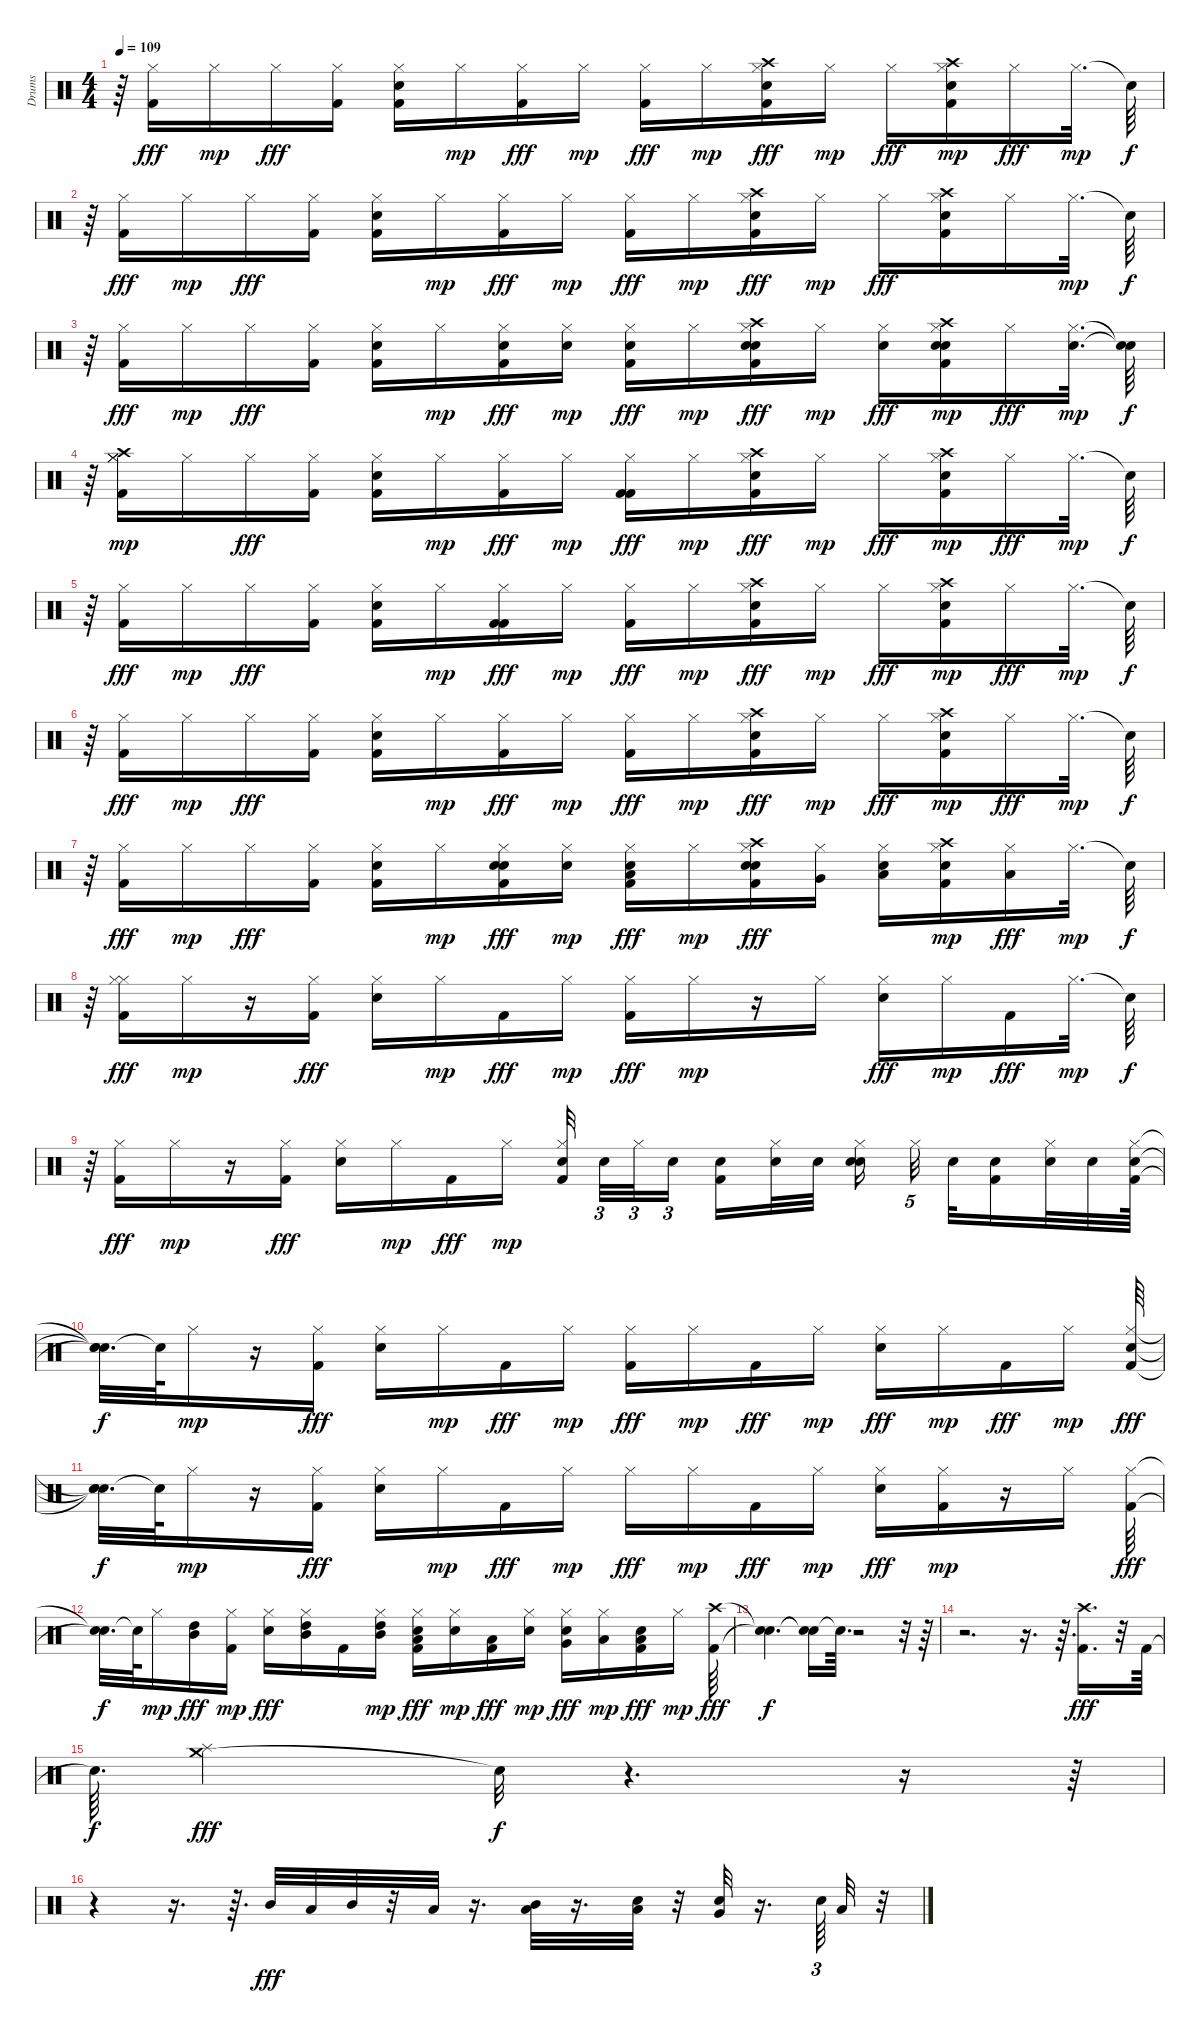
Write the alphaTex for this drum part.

\track ("Drums" "Drums") {instrument percussion}
\staff {score}
\articulation defaults
\ts (4 4)
\tempo 109
\clef neutral
\ks c
r.64{dy f} ("Kick (hit) 2" "Hi-Hat (closed)").16{dy fff} "Hi-Hat (closed)".16{dy mp} "Hi-Hat (closed)".16{dy fff} ("Hi-Hat (closed)" "Kick (hit) 2").16 ("Snare (hit) 2" "Kick (hit) 2" "Hi-Hat (closed)").16 "Hi-Hat (closed)".16{dy mp} ("Hi-Hat (closed)" "Kick (hit) 2").16{dy fff} "Hi-Hat (closed)".16{dy mp} ("Kick (hit) 2" "Hi-Hat (closed)").16{dy fff} "Hi-Hat (closed)".16{dy mp} ("Hi-Hat (closed)" "Snare (hit) 2" "Kick (hit) 2" "Crash high (hit)").16{dy fff} "Hi-Hat (closed)".16{dy mp} "Hi-Hat (closed)".16{dy fff} ("Snare (hit) 2" "Kick (hit) 2" "Crash high (hit)" "Hi-Hat (closed)").16{dy mp} "Hi-Hat (closed)".16{dy fff} "Hi-Hat (closed)".32{d dy mp} "Snare (hit)"{t}.64{dy f} |
r.64 ("Kick (hit) 2" "Hi-Hat (closed)").16{dy fff} "Hi-Hat (closed)".16{dy mp} "Hi-Hat (closed)".16{dy fff} ("Hi-Hat (closed)" "Kick (hit) 2").16 ("Snare (hit) 2" "Kick (hit) 2" "Hi-Hat (closed)").16 "Hi-Hat (closed)".16{dy mp} ("Kick (hit) 2" "Hi-Hat (closed)").16{dy fff} "Hi-Hat (closed)".16{dy mp} ("Kick (hit) 2" "Hi-Hat (closed)").16{dy fff} "Hi-Hat (closed)".16{dy mp} ("Crash high (hit)" "Kick (hit) 2" "Snare (hit) 2" "Hi-Hat (closed)").16{dy fff} "Hi-Hat (closed)".16{dy mp} "Hi-Hat (closed)".16{dy fff} ("Hi-Hat (closed)" "Crash high (hit)" "Kick (hit) 2" "Snare (hit) 2").16 "Hi-Hat (closed)".16 "Hi-Hat (closed)".32{d dy mp} "Snare (hit)"{t}.64{dy f} |
r.64 ("Kick (hit) 2" "Hi-Hat (closed)").16{dy fff} "Hi-Hat (closed)".16{dy mp} "Hi-Hat (closed)".16{dy fff} ("Hi-Hat (closed)" "Kick (hit) 2").16 ("Snare (hit) 2" "Kick (hit) 2" "Hi-Hat (closed)").16 "Hi-Hat (closed)".16{dy mp} ("Kick (hit) 2" "Hi-Hat (closed)" "Snare (hit) 2").16{dy fff} ("Snare (hit) 2" "Hi-Hat (closed)").16{dy mp} ("Snare (hit) 2" "Kick (hit) 2" "Hi-Hat (closed)").16{dy fff} "Hi-Hat (closed)".16{dy mp} ("Snare (hit) 2" "Crash high (hit)" "Kick (hit) 2" "Snare (hit) 2" "Hi-Hat (closed)").16{dy fff} "Hi-Hat (closed)".16{dy mp} ("Hi-Hat (closed)" "Snare (hit) 2").16{dy fff} ("Snare (hit) 2" "Crash high (hit)" "Snare (hit) 2" "Kick (hit) 2" "Hi-Hat (closed)").16{dy mp} "Hi-Hat (closed)".16{dy fff} ("Snare (hit) 2" "Hi-Hat (closed)").32{d dy mp} ("Snare (hit)"{t} "Snare (hit)"{t}).64{dy f} |
r.64 ("Crash high (hit)" "Kick (hit) 2" "Hi-Hat (closed)" "Hi-Hat (closed)" "Hi-Hat (closed)").16{dy mp} "Hi-Hat (closed)".16 "Hi-Hat (closed)".16{dy fff} ("Hi-Hat (closed)" "Kick (hit) 2").16 ("Snare (hit) 2" "Kick (hit) 2" "Hi-Hat (closed)").16 "Hi-Hat (closed)".16{dy mp} ("Kick (hit) 2" "Hi-Hat (closed)").16{dy fff} "Hi-Hat (closed)".16{dy mp} ("Kick (hit) 2" "Kick (hit) 2" "Hi-Hat (closed)").16{dy fff} "Hi-Hat (closed)".16{dy mp} ("Crash high (hit)" "Snare (hit) 2" "Kick (hit) 2" "Hi-Hat (closed)").16{dy fff} "Hi-Hat (closed)".16{dy mp} "Hi-Hat (closed)".16{dy fff} ("Crash high (hit)" "Snare (hit) 2" "Kick (hit) 2" "Hi-Hat (closed)").16{dy mp} "Hi-Hat (closed)".16{dy fff} "Hi-Hat (closed)".32{d dy mp} "Snare (hit)"{t}.64{dy f} |
r.64 ("Kick (hit) 2" "Hi-Hat (closed)").16{dy fff} "Hi-Hat (closed)".16{dy mp} "Hi-Hat (closed)".16{dy fff} ("Hi-Hat (closed)" "Kick (hit) 2").16 ("Snare (hit) 2" "Kick (hit) 2" "Hi-Hat (closed)").16 "Hi-Hat (closed)".16{dy mp} ("Kick (hit) 2" "Kick (hit) 2" "Hi-Hat (closed)").16{dy fff} "Hi-Hat (closed)".16{dy mp} ("Kick (hit) 2" "Hi-Hat (closed)").16{dy fff} "Hi-Hat (closed)".16{dy mp} ("Hi-Hat (closed)" "Crash high (hit)" "Snare (hit) 2" "Kick (hit) 2").16{dy fff} "Hi-Hat (closed)".16{dy mp} "Hi-Hat (closed)".16{dy fff} ("Kick (hit) 2" "Crash high (hit)" "Snare (hit) 2" "Hi-Hat (closed)").16{dy mp} "Hi-Hat (closed)".16{dy fff} "Hi-Hat (closed)".32{d dy mp} "Snare (hit)"{t}.64{dy f} |
r.64 ("Kick (hit) 2" "Hi-Hat (closed)").16{dy fff} "Hi-Hat (closed)".16{dy mp} "Hi-Hat (closed)".16{dy fff} ("Hi-Hat (closed)" "Kick (hit) 2").16 ("Hi-Hat (closed)" "Snare (hit) 2" "Kick (hit) 2").16 "Hi-Hat (closed)".16{dy mp} ("Kick (hit) 2" "Hi-Hat (closed)").16{dy fff} "Hi-Hat (closed)".16{dy mp} ("Hi-Hat (closed)" "Kick (hit) 2").16{dy fff} "Hi-Hat (closed)".16{dy mp} ("Hi-Hat (closed)" "Crash high (hit)" "Kick (hit) 2" "Snare (hit) 2").16{dy fff} "Hi-Hat (closed)".16{dy mp} "Hi-Hat (closed)".16{dy fff} ("Crash high (hit)" "Kick (hit) 2" "Snare (hit) 2" "Hi-Hat (closed)").16{dy mp} "Hi-Hat (closed)".16{dy fff} "Hi-Hat (closed)".32{d dy mp} "Snare (hit)"{t}.64{dy f} |
r.64 ("Kick (hit) 2" "Hi-Hat (closed)").16{dy fff} "Hi-Hat (closed)".16{dy mp} "Hi-Hat (closed)".16{dy fff} ("Hi-Hat (closed)" "Kick (hit) 2").16 ("Hi-Hat (closed)" "Snare (hit) 2" "Kick (hit) 2").16 "Hi-Hat (closed)".16{dy mp} ("Hi-Hat (closed)" "Kick (hit) 2" "Snare (hit) 2" "Snare (hit) 2").16{dy fff} ("Hi-Hat (closed)" "Snare (hit) 2").16{dy mp} ("Snare (hit) 2" "Hi-Hat (closed)" "Kick (hit) 2" "Low Tom (hit)").16{dy fff} "Hi-Hat (closed)".16{dy mp} ("Snare (hit) 2" "Hi-Hat (closed)" "Crash high (hit)" "Snare (hit) 2" "Kick (hit) 2").16{dy fff} ("Hi-Hat (closed)" "Very Low Tom (hit)").16 ("Snare (hit) 2" "Hi-Hat (closed)" "Low Floor Tom (hit)").16 ("Kick (hit) 2" "Crash high (hit)" "Snare (hit) 2" "Hi-Hat (closed)").16{dy mp} ("Hi-Hat (closed)" "Low Floor Tom (hit)").16{dy fff} "Hi-Hat (closed)".32{d dy mp} "Snare (hit)"{t}.64{dy f} |
r.64 ("Kick (hit) 2" "Hi-Hat (closed)" "Hi-Hat (closed)").16{dy fff} "Hi-Hat (closed)".16{dy mp} r.16 ("Hi-Hat (closed)" "Kick (hit) 2").16{dy fff} ("Hi-Hat (closed)" "Snare (hit) 2").16 "Hi-Hat (closed)".16{dy mp} "Kick (hit) 2".16{dy fff} "Hi-Hat (closed)".16{dy mp} ("Hi-Hat (closed)" "Kick (hit) 2").16{dy fff} "Hi-Hat (closed)".16{dy mp} r.16 "Hi-Hat (closed)".16 ("Snare (hit) 2" "Hi-Hat (closed)").16{dy fff} "Hi-Hat (closed)".16{dy mp} "Kick (hit) 2".16{dy fff} "Hi-Hat (closed)".32{d dy mp} "Snare (hit)"{t}.64{dy f} |
r.64 ("Hi-Hat (closed)" "Kick (hit) 2").16{dy fff} "Hi-Hat (closed)".16{dy mp} r.16 ("Hi-Hat (closed)" "Kick (hit) 2").16{dy fff} ("Hi-Hat (closed)" "Snare (hit) 2").16 "Hi-Hat (closed)".16{dy mp} "Kick (hit) 2".16{dy fff} "Hi-Hat (closed)".16{dy mp} ("Hi-Hat (closed)" "Kick (hit) 2" "Snare (hit) 2").32{beam splitsecondary} "Snare (hit) 2".32{tu (3 2)} "Hi-Hat (closed)".32{tu (3 2)} "Snare (hit) 2".16{tu (3 2) beam splitsecondary} ("Kick (hit) 2" "Snare (hit) 2").16 ("Snare (hit) 2" "Hi-Hat (closed)").32 "Snare (hit) 2".32 ("Hi-Hat (closed)" "Snare (hit) 2" "Snare (hit) 2").16{beam splitsecondary} "Hi-Hat (closed)".32{tu (5 4) beam splitsecondary} "Snare (hit) 2".32 ("Kick (hit) 2" "Snare (hit) 2").16 ("Snare (hit) 2" "Hi-Hat (closed)").32 "Snare (hit) 2".32 ("Kick (hit) 2" "Hi-Hat (closed)" "Snare (hit) 2").64 |
("Snare (hit)"{t} "Snare (hit)"{t} "Snare (hit)"{t}).32{d dy f} "Snare (hit)"{t}.64 "Hi-Hat (closed)".16{dy mp} r.16 ("Hi-Hat (closed)" "Kick (hit) 2").16{dy fff} ("Hi-Hat (closed)" "Snare (hit) 2").16 "Hi-Hat (closed)".16{dy mp} "Kick (hit) 2".16{dy fff} "Hi-Hat (closed)".16{dy mp} ("Hi-Hat (closed)" "Kick (hit) 2").16{dy fff} "Hi-Hat (closed)".16{dy mp} "Kick (hit) 2".16{dy fff} "Hi-Hat (closed)".16{dy mp} ("Hi-Hat (closed)" "Snare (hit) 2").16{dy fff} "Hi-Hat (closed)".16{dy mp} "Kick (hit) 2".16{dy fff} "Hi-Hat (closed)".16{dy mp} ("Hi-Hat (closed)" "Kick (hit) 2" "Metronome (bell)").64{dy fff} |
("Snare (hit)"{t} "Snare (hit)"{t} "Snare (hit)"{t}).32{d dy f} "Snare (hit)"{t}.64 "Hi-Hat (closed)".16{dy mp} r.16 ("Hi-Hat (closed)" "Kick (hit) 2").16{dy fff} ("Hi-Hat (closed)" "Snare (hit) 2").16 "Hi-Hat (closed)".16{dy mp} "Kick (hit) 2".16{dy fff} "Hi-Hat (closed)".16{dy mp} "Hi-Hat (closed)".16{dy fff} "Hi-Hat (closed)".16{dy mp} "Kick (hit) 2".16{dy fff} "Hi-Hat (closed)".16{dy mp} ("Snare (hit) 2" "Hi-Hat (closed)").16{dy fff} ("Kick (hit) 2" "Hi-Hat (closed)").16{dy mp} r.16 "Hi-Hat (closed)".16 ("Kick (hit) 2" "Hi-Hat (closed)").64{dy fff} |
("Snare (hit)"{t} "Snare (hit)"{t}).32{d dy f} "Snare (hit)"{t}.64 "Hi-Hat (closed)".16{dy mp} ("High Tom (hit)" "Mid Tom (hit)").16{dy fff} ("Kick (hit) 2" "Hi-Hat (closed)").16{dy mp} ("Hi-Hat (closed)" "Snare (hit) 2").16{dy fff} ("High Tom (hit)" "Hi-Hat (closed)" "Mid Tom (hit)").16 "Kick (hit) 2".16 ("Mid Tom (hit)" "High Tom (hit)" "Hi-Hat (closed)").16{dy mp} ("Low Tom (hit)" "Kick (hit) 2" "Snare (hit) 2" "Hi-Hat (closed)").16{dy fff} ("Snare (hit) 2" "Hi-Hat (closed)").16{dy mp} ("Low Tom (hit)" "Kick (hit) 2").16{dy fff} ("Snare (hit) 2" "Hi-Hat (closed)").16{dy mp} ("Very Low Tom (hit)" "Snare (hit) 2" "Hi-Hat (closed)").16{dy fff} ("Low Floor Tom (hit)" "Hi-Hat (closed)").16{dy mp} ("Low Floor Tom (hit)" "Kick (hit) 2" "Snare (hit) 2").16{dy fff} "Hi-Hat (closed)".16{dy mp} ("Crash high (hit)" "Kick (hit) 2").64{dy fff} |
("Snare (hit)"{t} "Snare (hit)"{t}).4{d dy f} ("Snare (hit)"{t} "Snare (hit)"{t}).16 "Snare (hit)"{t}.64{d} r.2 r.32 r.64 |
r.2{d} r.16{d} r.64{d} ("Kick (hit) 2" "Crash high (hit)").16{d dy fff} r.32 "Kick (hit) 2".64 |
"Snare (hit)"{t}.64{d dy f} ("Crash medium (hit)" "Splash (hit)").2{dy fff} "Snare (hit)"{t}.32{dy f} r.4{d} r.16 r.64 |
r.4 r.16{d} r.64{d} "Mid Tom (hit)".32{dy fff} "Low Tom (hit)".32 "Mid Tom (hit)".32 r.32 "Low Tom (hit)".32{balance 14} r.16{d} ("Mid Tom (hit)" "Low Tom (hit)").32{balance 11} r.16{d} ("Snare (hit) 2" "Low Tom (hit)").32{balance 6} r.32 ("Snare (hit) 2" "Very Low Tom (hit)").32{balance 4} r.16{d} "Snare (hit) 2".64{tu (3 2) balance 2} "Low Floor Tom (hit)".32{balance 5} r.32
